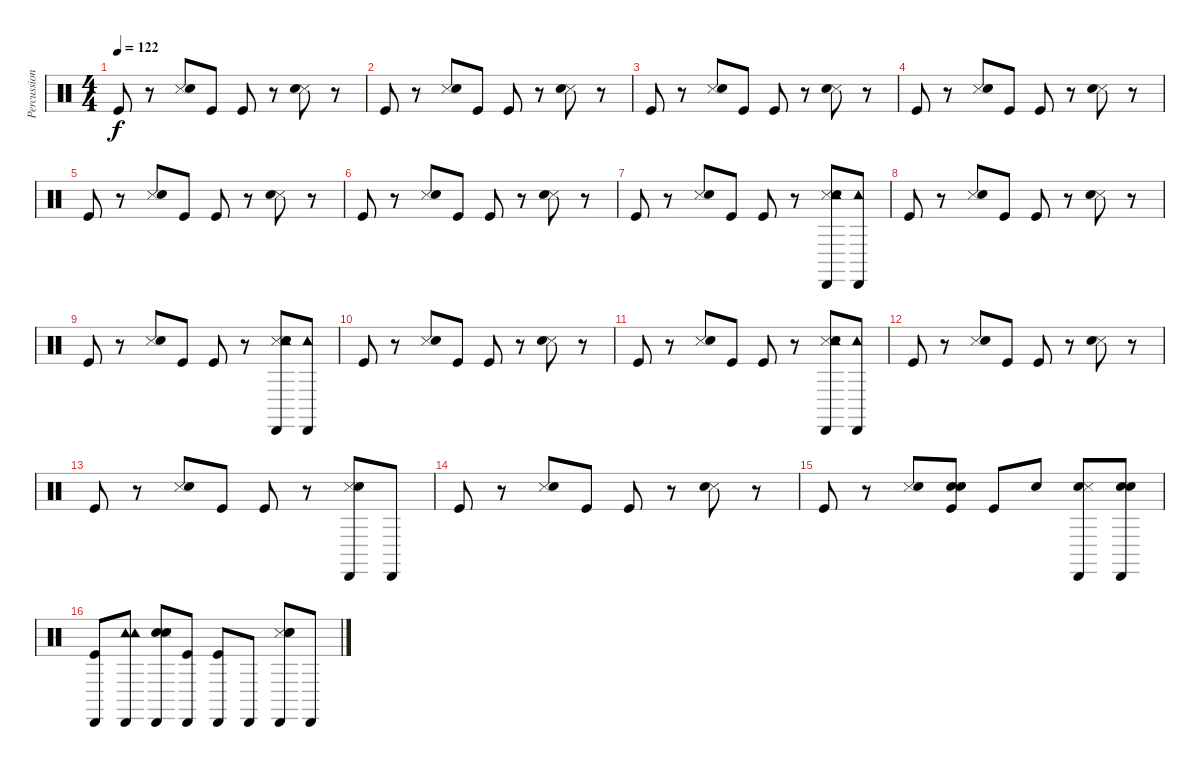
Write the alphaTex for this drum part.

\track ("Percussion" "Percussion") {instrument percussion}
\staff {score}
\articulation defaults
\ts (4 4)
\tempo 122
\clef neutral
\ks c "Kick (hit)".8{dy f}
r.8 ("Snare (side stick) 3" "Snare (hit) 2").8 "Kick (hit)".8 "Kick (hit)".8 r.8 ("Snare (side stick) 3" "Snare (hit) 2").8 r.8 |
"Kick (hit)".8 r.8 ("Snare (side stick) 3" "Snare (hit) 2").8 "Kick (hit)".8 "Kick (hit)".8 r.8 ("Snare (side stick) 3" "Snare (hit) 2").8 r.8 |
"Kick (hit)".8 r.8 ("Snare (side stick) 3" "Snare (hit) 2").8 "Kick (hit)".8 "Kick (hit)".8 r.8 ("Snare (side stick) 3" "Snare (hit) 2").8 r.8 |
"Kick (hit)".8 r.8 ("Snare (side stick) 3" "Snare (hit) 2").8 "Kick (hit)".8 "Kick (hit)".8 r.8 ("Snare (side stick) 3" "Snare (hit) 2").8 r.8 |
"Kick (hit)".8 r.8 ("Snare (side stick) 3" "Snare (hit) 2").8 "Kick (hit)".8 "Kick (hit)".8 r.8 ("Snare (side stick) 3" "Snare (hit) 2").8 r.8 |
"Kick (hit)".8 r.8 ("Snare (side stick) 3" "Snare (hit) 2").8 "Kick (hit)".8 "Kick (hit)".8 r.8 ("Snare (side stick) 3" "Snare (hit) 2").8 r.8 |
"Kick (hit)".8 r.8 ("Snare (side stick) 3" "Snare (hit) 2").8 "Kick (hit)".8 "Kick (hit)".8 r.8 ("Snare (side stick) 3" "Cabasa (hit)" "Tambourine (hit)" "Snare (hit) 2").8 ("Cabasa (hit)" "Tambourine (hit)").8 |
"Kick (hit)".8 r.8 ("Snare (side stick) 3" "Snare (hit) 2").8 "Kick (hit)".8 "Kick (hit)".8 r.8 ("Snare (side stick) 3" "Snare (hit) 2").8 r.8 |
"Kick (hit)".8 r.8 ("Snare (side stick) 3" "Snare (hit) 2").8 "Kick (hit)".8 "Kick (hit)".8 r.8 ("Snare (side stick) 3" "Cabasa (hit)" "Tambourine (hit)" "Snare (hit) 2").8 ("Cabasa (hit)" "Tambourine (hit)").8 |
"Kick (hit)".8 r.8 ("Snare (side stick) 3" "Snare (hit) 2").8 "Kick (hit)".8 "Kick (hit)".8 r.8 ("Snare (side stick) 3" "Snare (hit) 2").8 r.8 |
"Kick (hit)".8 r.8 ("Snare (side stick) 3" "Snare (hit) 2").8 "Kick (hit)".8 "Kick (hit)".8 r.8 ("Snare (side stick) 3" "Cabasa (hit)" "Tambourine (hit)" "Snare (hit) 2").8 ("Cabasa (hit)" "Tambourine (hit)").8 |
"Kick (hit)".8 r.8 ("Snare (side stick) 3" "Snare (hit) 2").8 "Kick (hit)".8 "Kick (hit)".8 r.8 ("Snare (side stick) 3" "Snare (hit) 2").8 r.8 |
"Kick (hit)".8 r.8 ("Snare (side stick) 3" "Snare (hit) 2").8 "Kick (hit)".8 "Kick (hit)".8 r.8 ("Cabasa (hit)" "Snare (side stick) 3" "Snare (hit) 2").8 "Cabasa (hit)".8 |
"Kick (hit)".8 r.8 ("Snare (side stick) 3" "Snare (hit) 2").8 "Kick (hit)".8 "Kick (hit)".8 r.8 ("Snare (side stick) 3" "Snare (hit) 2").8 r.8 |
"Kick (hit)".8 r.8 ("Snare (side stick) 3" "Snare (hit) 2").8 ("Snare (hit) 2" "Kick (hit)" "Snare (hit) 2").8 "Kick (hit)".8 "Snare (hit) 2".8 ("Snare (hit) 2" "Cabasa (hit)" "Snare (side stick) 3").8 ("Snare (hit) 2" "Cabasa (hit)" "Snare (hit) 2").8 |
("Kick (hit)" "Cabasa (hit)").8 ("Tambourine (hit)" "Cabasa (hit)" "Tambourine (hit)").8 ("Snare (hit) 2" "Snare (side stick) 3" "Cabasa (hit)" "Hand Clap (hit)").8 ("Kick (hit)" "Cabasa (hit)").8 ("Kick (hit)" "Cabasa (hit)").8 "Cabasa (hit)".8 ("Snare (side stick) 3" "Cabasa (hit)" "Hand Clap (hit)" "Snare (hit) 2").8 "Cabasa (hit)".8
